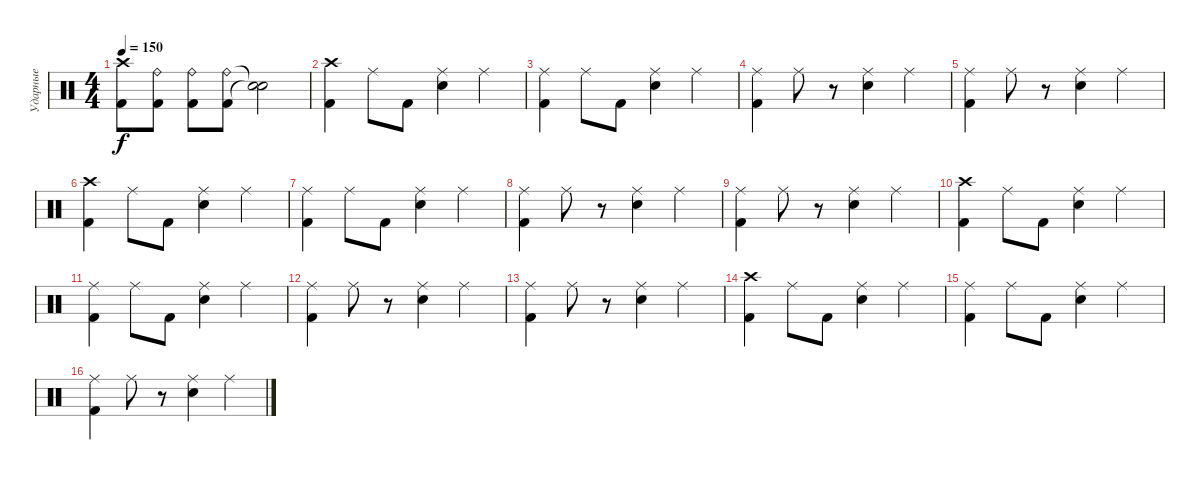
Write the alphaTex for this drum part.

\track ("Ударные" "Ударные") {instrument percussion}
\staff {score}
\articulation defaults
\ts (4 4)
\tempo 150
\clef neutral
\ks c
("Kick (hit) 2" "Crash high (hit)").8{dy f} ("Kick (hit) 2" "Ride (bell)").8 ("Kick (hit) 2" "Ride (bell)").8 ("Kick (hit) 2" "Ride (bell)").8 ("Snare (hit)"{t} "Snare (hit)"{t}).2 |
("Kick (hit) 2" "Crash high (hit)").4 "Ride (middle)".8 "Kick (hit) 2".8 ("Ride (middle)" "Electric Snare (hit)").4 "Ride (middle)".4 |
("Kick (hit) 2" "Ride (middle)").4 "Ride (middle)".8 "Kick (hit) 2".8 ("Ride (middle)" "Electric Snare (hit)").4 "Ride (middle)".4 |
("Kick (hit) 2" "Ride (middle)").4 "Ride (middle)".8 r.8 ("Ride (middle)" "Electric Snare (hit)").4 "Ride (middle)".4 |
("Kick (hit) 2" "Ride (middle)").4 "Ride (middle)".8 r.8 ("Ride (middle)" "Electric Snare (hit)").4 "Ride (middle)".4 |
("Kick (hit) 2" "Crash high (hit)").4 "Ride (middle)".8 "Kick (hit) 2".8 ("Ride (middle)" "Electric Snare (hit)").4 "Ride (middle)".4 |
("Kick (hit) 2" "Ride (middle)").4 "Ride (middle)".8 "Kick (hit) 2".8 ("Ride (middle)" "Electric Snare (hit)").4 "Ride (middle)".4 |
("Kick (hit) 2" "Ride (middle)").4 "Ride (middle)".8 r.8 ("Ride (middle)" "Electric Snare (hit)").4 "Ride (middle)".4 |
("Kick (hit) 2" "Ride (middle)").4 "Ride (middle)".8 r.8 ("Ride (middle)" "Electric Snare (hit)").4 "Ride (middle)".4 |
("Kick (hit) 2" "Crash high (hit)").4 "Ride (middle)".8 "Kick (hit) 2".8 ("Ride (middle)" "Electric Snare (hit)").4 "Ride (middle)".4 |
("Kick (hit) 2" "Ride (middle)").4 "Ride (middle)".8 "Kick (hit) 2".8 ("Ride (middle)" "Electric Snare (hit)").4 "Ride (middle)".4 |
("Kick (hit) 2" "Ride (middle)").4 "Ride (middle)".8 r.8 ("Ride (middle)" "Electric Snare (hit)").4 "Ride (middle)".4 |
("Kick (hit) 2" "Ride (middle)").4 "Ride (middle)".8 r.8 ("Ride (middle)" "Electric Snare (hit)").4 "Ride (middle)".4 |
("Kick (hit) 2" "Crash high (hit)").4 "Ride (middle)".8 "Kick (hit) 2".8 ("Ride (middle)" "Electric Snare (hit)").4 "Ride (middle)".4 |
("Kick (hit) 2" "Ride (middle)").4 "Ride (middle)".8 "Kick (hit) 2".8 ("Ride (middle)" "Electric Snare (hit)").4 "Ride (middle)".4 |
("Kick (hit) 2" "Ride (middle)").4 "Ride (middle)".8 r.8 ("Ride (middle)" "Electric Snare (hit)").4 "Ride (middle)".4
